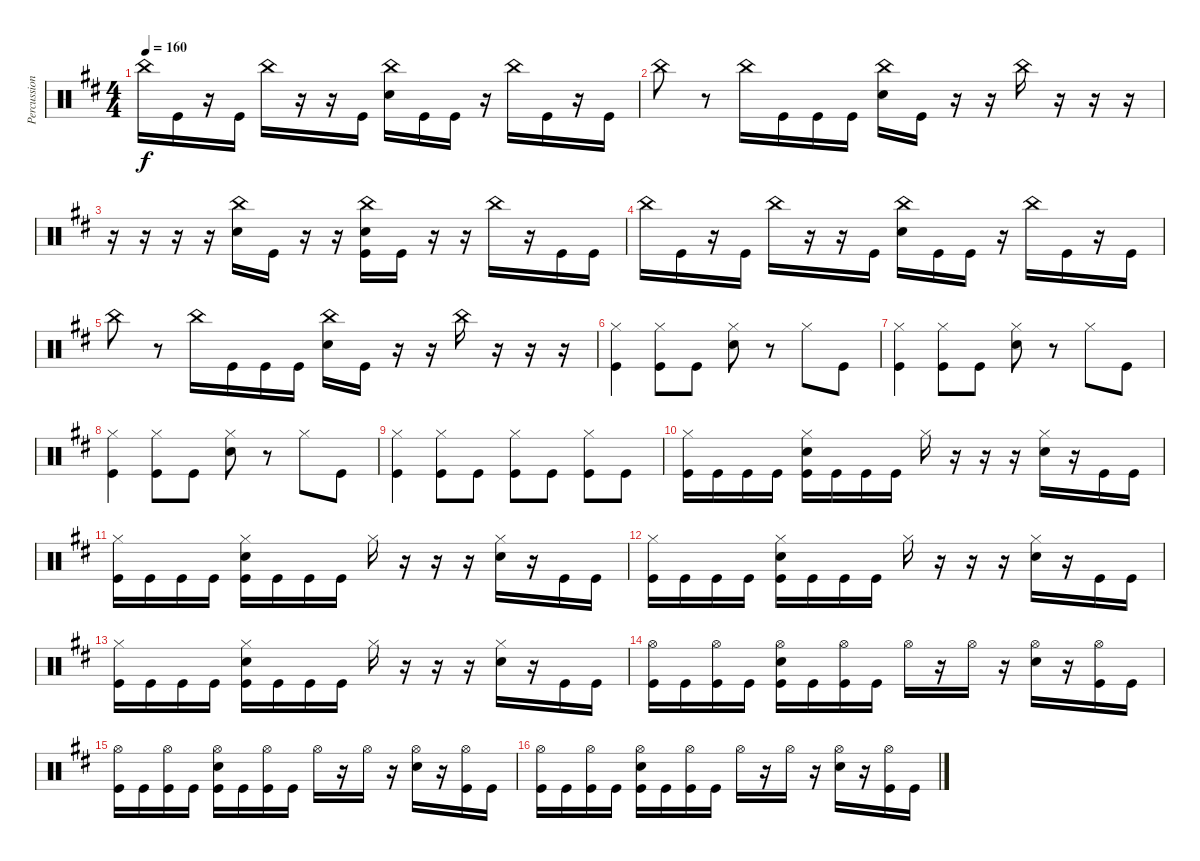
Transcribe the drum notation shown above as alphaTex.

\track ("Percussion" "Percussion") {instrument percussion}
\staff {score}
\articulation defaults
\ts (4 4)
\tempo 160
\clef neutral
\ks bminor "China (hit)".16{dy f} "Kick (hit)".16
r.16 "Kick (hit)".16 "China (hit)".16 r.16 r.16 "Kick (hit)".16 ("China (hit)" "Snare (hit) 2").16 "Kick (hit)".16 "Kick (hit)".16 r.16 "China (hit)".16 "Kick (hit)".16 r.16 "Kick (hit)".16 |
"China (hit)".8 r.8 "China (hit)".16 "Kick (hit)".16 "Kick (hit)".16 "Kick (hit)".16 ("China (hit)" "Snare (hit) 2").16 "Kick (hit)".16 r.16 r.16 "China (hit)".16 r.16 r.16 r.16 |
r.16 r.16 r.16 r.16 ("China (hit)" "Snare (hit)").16 "Kick (hit)".16 r.16 r.16 ("China (hit)" "Snare (hit) 2" "Kick (hit)").16 "Kick (hit)".16 r.16 r.16 "China (hit)".16 r.16 "Kick (hit)".16 "Kick (hit)".16 |
"China (hit)".16 "Kick (hit)".16 r.16 "Kick (hit)".16 "China (hit)".16 r.16 r.16 "Kick (hit)".16 ("China (hit)" "Snare (hit) 2").16 "Kick (hit)".16 "Kick (hit)".16 r.16 "China (hit)".16 "Kick (hit)".16 r.16 "Kick (hit)".16 |
"China (hit)".8 r.8 "China (hit)".16 "Kick (hit)".16 "Kick (hit)".16 "Kick (hit)".16 ("China (hit)" "Snare (hit) 2").16 "Kick (hit)".16 r.16 r.16 "China (hit)".16 r.16 r.16 r.16 |
("Hi-Hat (closed)" "Kick (hit)").4 ("Hi-Hat (closed)" "Kick (hit)").8 "Kick (hit)".8 ("Hi-Hat (closed)" "Snare (hit) 2").8 r.8 "Hi-Hat (closed)".8 "Kick (hit)".8 |
("Hi-Hat (closed)" "Kick (hit)").4 ("Hi-Hat (closed)" "Kick (hit)").8 "Kick (hit)".8 ("Hi-Hat (closed)" "Snare (hit) 2").8 r.8 "Hi-Hat (closed)".8 "Kick (hit)".8 |
("Hi-Hat (closed)" "Kick (hit)").4 ("Hi-Hat (closed)" "Kick (hit)").8 "Kick (hit)".8 ("Hi-Hat (closed)" "Snare (hit) 2").8 r.8 "Hi-Hat (closed)".8 "Kick (hit)".8 |
("Hi-Hat (closed)" "Kick (hit)").4 ("Hi-Hat (closed)" "Kick (hit)").8 "Kick (hit)".8 ("Hi-Hat (closed)" "Kick (hit)").8 "Kick (hit)".8 ("Hi-Hat (closed)" "Kick (hit)").8 "Kick (hit)".8 |
("Hi-Hat (closed)" "Kick (hit)").16 "Kick (hit)".16 "Kick (hit)".16 "Kick (hit)".16 ("Hi-Hat (closed)" "Snare (hit) 2" "Kick (hit)").16 "Kick (hit)".16 "Kick (hit)".16 "Kick (hit)".16 "Hi-Hat (closed)".16 r.16 r.16 r.16 ("Hi-Hat (closed)" "Snare (hit) 2").16 r.16 "Kick (hit)".16 "Kick (hit)".16 |
("Hi-Hat (closed)" "Kick (hit)").16 "Kick (hit)".16 "Kick (hit)".16 "Kick (hit)".16 ("Hi-Hat (closed)" "Snare (hit) 2" "Kick (hit)").16 "Kick (hit)".16 "Kick (hit)".16 "Kick (hit)".16 "Hi-Hat (closed)".16 r.16 r.16 r.16 ("Hi-Hat (closed)" "Snare (hit) 2").16 r.16 "Kick (hit)".16 "Kick (hit)".16 |
("Hi-Hat (closed)" "Kick (hit)").16 "Kick (hit)".16 "Kick (hit)".16 "Kick (hit)".16 ("Hi-Hat (closed)" "Snare (hit) 2" "Kick (hit)").16 "Kick (hit)".16 "Kick (hit)".16 "Kick (hit)".16 "Hi-Hat (closed)".16 r.16 r.16 r.16 ("Hi-Hat (closed)" "Snare (hit) 2").16 r.16 "Kick (hit)".16 "Kick (hit)".16 |
("Hi-Hat (closed)" "Kick (hit)").16 "Kick (hit)".16 "Kick (hit)".16 "Kick (hit)".16 ("Hi-Hat (closed)" "Snare (hit) 2" "Kick (hit)").16 "Kick (hit)".16 "Kick (hit)".16 "Kick (hit)".16 "Hi-Hat (closed)".16 r.16 r.16 r.16 ("Hi-Hat (closed)" "Snare (hit) 2").16 r.16 "Kick (hit)".16 "Kick (hit)".16 |
("Hi-Hat (open)" "Kick (hit)").16 "Kick (hit)".16 ("Hi-Hat (open)" "Kick (hit)").16 "Kick (hit)".16 ("Hi-Hat (open)" "Snare (hit) 2" "Kick (hit)").16 "Kick (hit)".16 ("Hi-Hat (open)" "Kick (hit)").16 "Kick (hit)".16 "Hi-Hat (open)".16 r.16 "Hi-Hat (open)".16 r.16 ("Hi-Hat (open)" "Snare (hit) 2").16 r.16 ("Hi-Hat (open)" "Kick (hit)").16 "Kick (hit)".16 |
("Hi-Hat (open)" "Kick (hit)").16 "Kick (hit)".16 ("Hi-Hat (open)" "Kick (hit)").16 "Kick (hit)".16 ("Hi-Hat (open)" "Snare (hit) 2" "Kick (hit)").16 "Kick (hit)".16 ("Hi-Hat (open)" "Kick (hit)").16 "Kick (hit)".16 "Hi-Hat (open)".16 r.16 "Hi-Hat (open)".16 r.16 ("Hi-Hat (open)" "Snare (hit) 2").16 r.16 ("Hi-Hat (open)" "Kick (hit)").16 "Kick (hit)".16 |
("Hi-Hat (open)" "Kick (hit)").16 "Kick (hit)".16 ("Hi-Hat (open)" "Kick (hit)").16 "Kick (hit)".16 ("Hi-Hat (open)" "Snare (hit) 2" "Kick (hit)").16 "Kick (hit)".16 ("Hi-Hat (open)" "Kick (hit)").16 "Kick (hit)".16 "Hi-Hat (open)".16 r.16 "Hi-Hat (open)".16 r.16 ("Hi-Hat (open)" "Snare (hit) 2").16 r.16 ("Hi-Hat (open)" "Kick (hit)").16 "Kick (hit)".16
